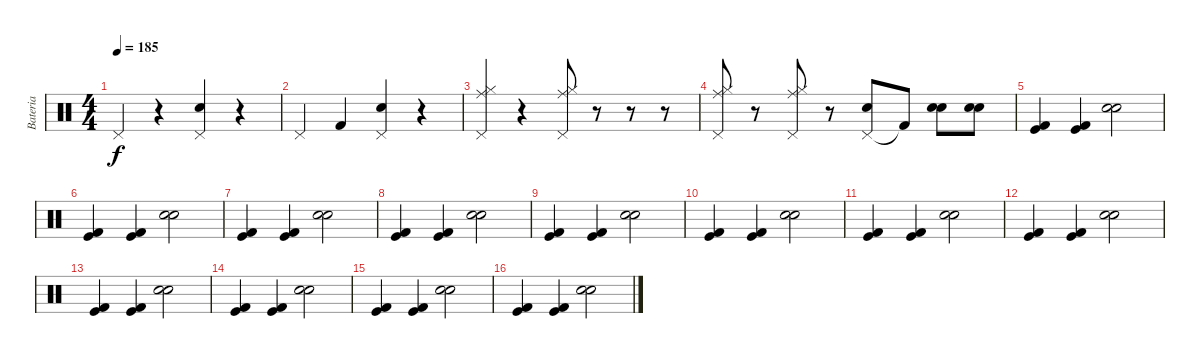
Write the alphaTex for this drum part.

\track ("Bateria" "Bateria") {instrument percussion}
\staff {score}
\articulation defaults
\ts (4 4)
\tempo 185
\clef neutral
\ks c "Pedal Hi-Hat (hit)".4{dy f}
r.4 ("Pedal Hi-Hat (hit)" "Electric Snare (hit)").4 r.4 |
"Pedal Hi-Hat (hit)".4 "Kick (hit) 2".4 ("Pedal Hi-Hat (hit)" "Electric Snare (hit)").4 r.4 |
("Pedal Hi-Hat (hit)" "Hi-Hat (closed)" "Ride (middle)").4 r.4 ("Pedal Hi-Hat (hit)" "Hi-Hat (closed)" "Ride (middle)").8 r.8 r.8 r.8 |
("Pedal Hi-Hat (hit)" "Hi-Hat (closed)" "Ride (middle)").8 r.8 ("Pedal Hi-Hat (hit)" "Hi-Hat (closed)" "Ride (middle)").8 r.8 ("Pedal Hi-Hat (hit)" "Electric Snare (hit)").8 "Kick (hit) 2"{t}.8 ("Electric Snare (hit)" "Electric Snare (hit)").8 ("Electric Snare (hit)" "Electric Snare (hit)").8 |
("Kick (hit) 2" "Kick (hit)").4 ("Kick (hit) 2" "Kick (hit)").4 ("Electric Snare (hit)" "Snare (hit) 2").2 |
("Kick (hit) 2" "Kick (hit)").4 ("Kick (hit) 2" "Kick (hit)").4 ("Electric Snare (hit)" "Snare (hit) 2").2 |
("Kick (hit) 2" "Kick (hit)").4 ("Kick (hit) 2" "Kick (hit)").4 ("Electric Snare (hit)" "Snare (hit) 2").2 |
("Kick (hit) 2" "Kick (hit)").4 ("Kick (hit) 2" "Kick (hit)").4 ("Electric Snare (hit)" "Snare (hit) 2").2 |
("Kick (hit) 2" "Kick (hit)").4 ("Kick (hit) 2" "Kick (hit)").4 ("Electric Snare (hit)" "Snare (hit) 2").2 |
("Kick (hit) 2" "Kick (hit)").4 ("Kick (hit) 2" "Kick (hit)").4 ("Electric Snare (hit)" "Snare (hit) 2").2 |
("Kick (hit) 2" "Kick (hit)").4 ("Kick (hit) 2" "Kick (hit)").4 ("Electric Snare (hit)" "Snare (hit) 2").2 |
("Kick (hit) 2" "Kick (hit)").4 ("Kick (hit) 2" "Kick (hit)").4 ("Electric Snare (hit)" "Snare (hit) 2").2 |
("Kick (hit) 2" "Kick (hit)").4 ("Kick (hit) 2" "Kick (hit)").4 ("Electric Snare (hit)" "Snare (hit) 2").2 |
("Kick (hit) 2" "Kick (hit)").4 ("Kick (hit) 2" "Kick (hit)").4 ("Electric Snare (hit)" "Snare (hit) 2").2 |
("Kick (hit) 2" "Kick (hit)").4 ("Kick (hit) 2" "Kick (hit)").4 ("Electric Snare (hit)" "Snare (hit) 2").2 |
("Kick (hit) 2" "Kick (hit)").4 ("Kick (hit) 2" "Kick (hit)").4 ("Electric Snare (hit)" "Snare (hit) 2").2
